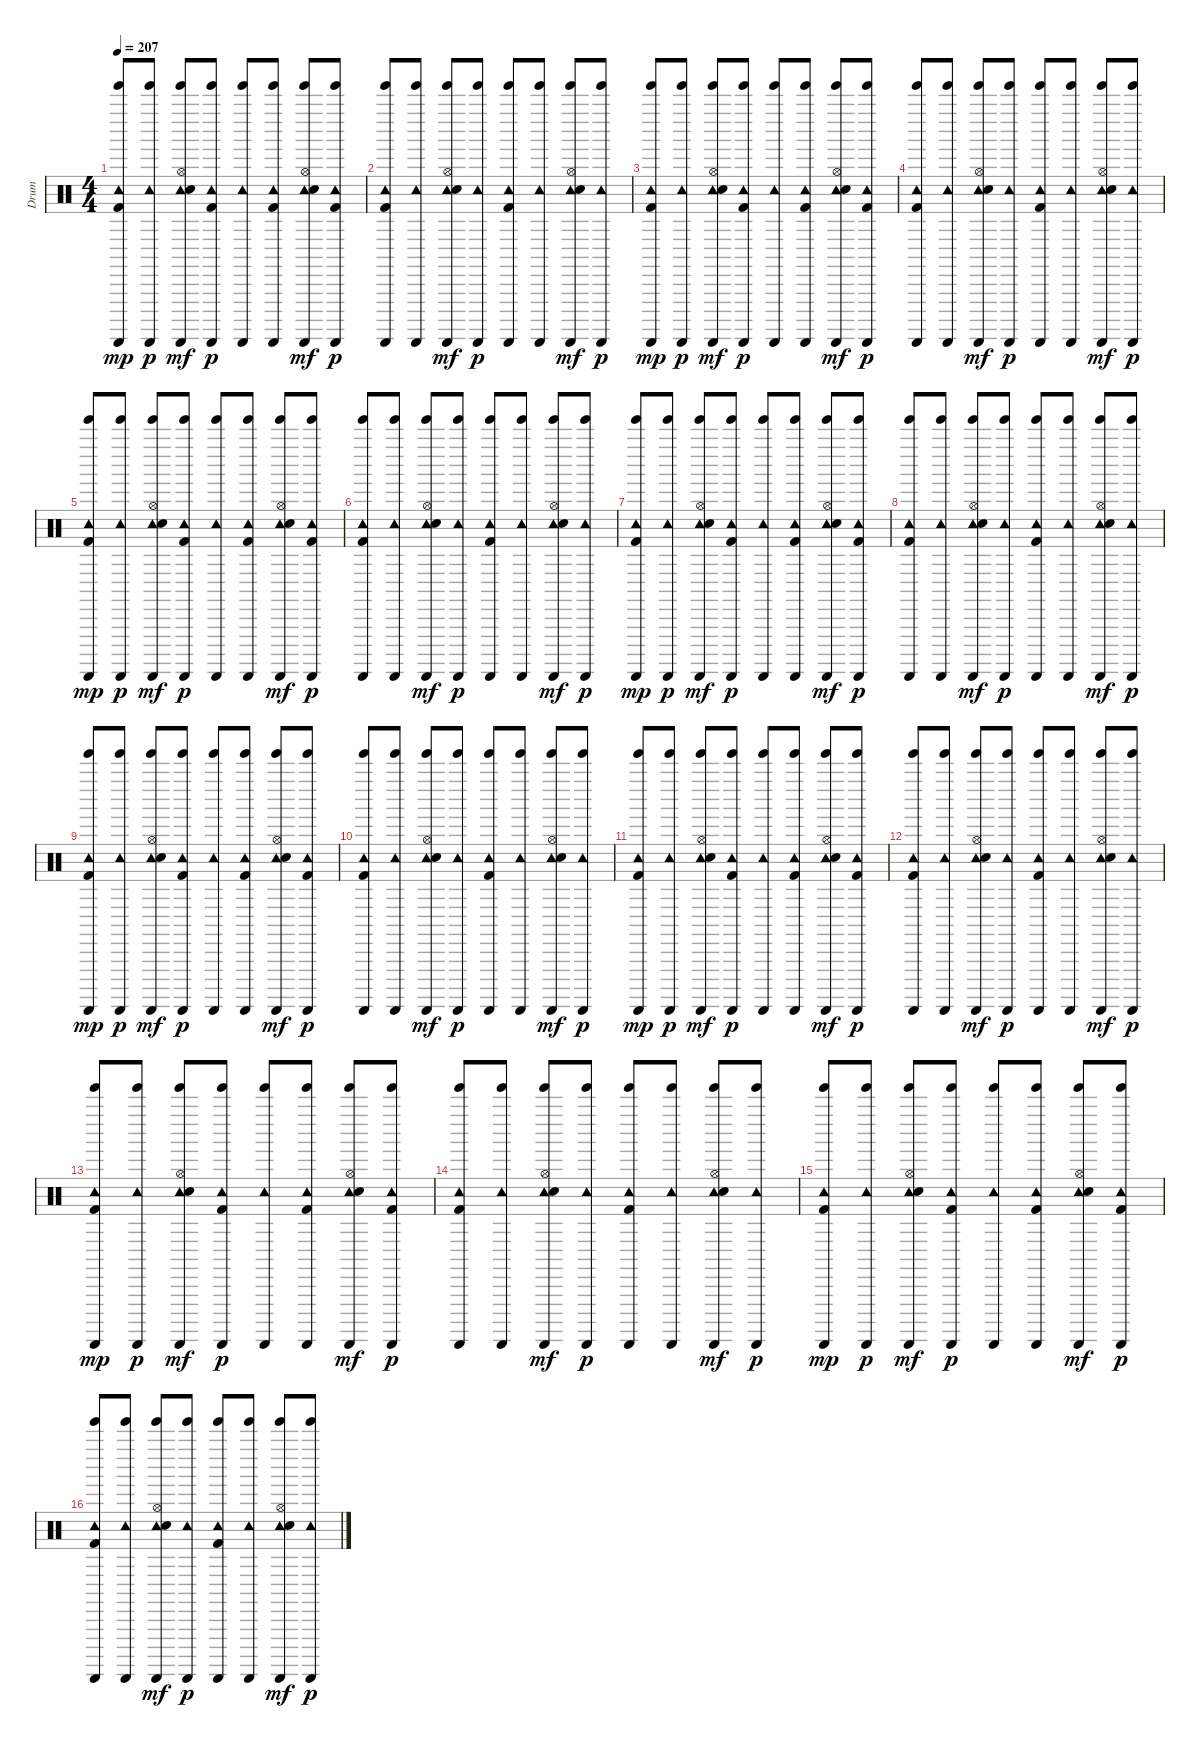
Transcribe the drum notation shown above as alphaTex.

\track ("Drum" "Drum") {instrument percussion}
\staff {score}
\articulation defaults
\ts (4 4)
\tempo 207
\clef neutral
\ks c
("Tambourine (hit)" "Kick (hit) 2" "Tinkle Bell (hit)" "Guiro (scrap-return)").8{dy mp} ("Tambourine (hit)" "Tinkle Bell (hit)" "Guiro (scrap-return)").8{dy p} ("Tambourine (hit)" "Hi-Hat (open)" "Snare (hit) 2" "Tinkle Bell (hit)" "Guiro (scrap-return)").8{dy mf} ("Tambourine (hit)" "Kick (hit) 2" "Tinkle Bell (hit)" "Guiro (scrap-return)").8{dy p} ("Tambourine (hit)" "Tinkle Bell (hit)" "Guiro (scrap-return)").8 ("Tambourine (hit)" "Kick (hit) 2" "Tinkle Bell (hit)" "Guiro (scrap-return)").8 ("Tambourine (hit)" "Hi-Hat (open)" "Snare (hit) 2" "Tinkle Bell (hit)" "Guiro (scrap-return)").8{dy mf} ("Tambourine (hit)" "Kick (hit) 2" "Tinkle Bell (hit)" "Guiro (scrap-return)").8{dy p} |
("Tambourine (hit)" "Kick (hit) 2" "Tinkle Bell (hit)" "Guiro (scrap-return)").8 ("Tambourine (hit)" "Tinkle Bell (hit)" "Guiro (scrap-return)").8 ("Tambourine (hit)" "Hi-Hat (open)" "Snare (hit) 2" "Tinkle Bell (hit)" "Guiro (scrap-return)").8{dy mf} ("Tambourine (hit)" "Tinkle Bell (hit)" "Guiro (scrap-return)").8{dy p} ("Tambourine (hit)" "Kick (hit) 2" "Tinkle Bell (hit)" "Guiro (scrap-return)").8 ("Tambourine (hit)" "Tinkle Bell (hit)" "Guiro (scrap-return)").8 ("Tambourine (hit)" "Hi-Hat (open)" "Snare (hit) 2" "Tinkle Bell (hit)" "Guiro (scrap-return)").8{dy mf} ("Tambourine (hit)" "Tinkle Bell (hit)" "Guiro (scrap-return)").8{dy p} |
("Tambourine (hit)" "Kick (hit) 2" "Tinkle Bell (hit)" "Guiro (scrap-return)").8{dy mp} ("Tambourine (hit)" "Tinkle Bell (hit)" "Guiro (scrap-return)").8{dy p} ("Tambourine (hit)" "Hi-Hat (open)" "Snare (hit) 2" "Tinkle Bell (hit)" "Guiro (scrap-return)").8{dy mf} ("Tambourine (hit)" "Kick (hit) 2" "Tinkle Bell (hit)" "Guiro (scrap-return)").8{dy p} ("Tambourine (hit)" "Tinkle Bell (hit)" "Guiro (scrap-return)").8 ("Tambourine (hit)" "Kick (hit) 2" "Tinkle Bell (hit)" "Guiro (scrap-return)").8 ("Tambourine (hit)" "Hi-Hat (open)" "Snare (hit) 2" "Tinkle Bell (hit)" "Guiro (scrap-return)").8{dy mf} ("Tambourine (hit)" "Kick (hit) 2" "Tinkle Bell (hit)" "Guiro (scrap-return)").8{dy p} |
("Tambourine (hit)" "Kick (hit) 2" "Tinkle Bell (hit)" "Guiro (scrap-return)").8 ("Tambourine (hit)" "Tinkle Bell (hit)" "Guiro (scrap-return)").8 ("Tambourine (hit)" "Hi-Hat (open)" "Snare (hit) 2" "Tinkle Bell (hit)" "Guiro (scrap-return)").8{dy mf} ("Tambourine (hit)" "Tinkle Bell (hit)" "Guiro (scrap-return)").8{dy p} ("Tambourine (hit)" "Kick (hit) 2" "Tinkle Bell (hit)" "Guiro (scrap-return)").8 ("Tambourine (hit)" "Tinkle Bell (hit)" "Guiro (scrap-return)").8 ("Tambourine (hit)" "Hi-Hat (open)" "Snare (hit) 2" "Tinkle Bell (hit)" "Guiro (scrap-return)").8{dy mf} ("Tambourine (hit)" "Tinkle Bell (hit)" "Guiro (scrap-return)").8{dy p} |
("Tambourine (hit)" "Kick (hit) 2" "Tinkle Bell (hit)" "Guiro (scrap-return)").8{dy mp} ("Tambourine (hit)" "Tinkle Bell (hit)" "Guiro (scrap-return)").8{dy p} ("Tambourine (hit)" "Hi-Hat (open)" "Snare (hit) 2" "Tinkle Bell (hit)" "Guiro (scrap-return)").8{dy mf} ("Tambourine (hit)" "Kick (hit) 2" "Tinkle Bell (hit)" "Guiro (scrap-return)").8{dy p} ("Tambourine (hit)" "Tinkle Bell (hit)" "Guiro (scrap-return)").8 ("Tambourine (hit)" "Kick (hit) 2" "Tinkle Bell (hit)" "Guiro (scrap-return)").8 ("Tambourine (hit)" "Hi-Hat (open)" "Snare (hit) 2" "Tinkle Bell (hit)" "Guiro (scrap-return)").8{dy mf} ("Tambourine (hit)" "Kick (hit) 2" "Tinkle Bell (hit)" "Guiro (scrap-return)").8{dy p} |
("Tambourine (hit)" "Kick (hit) 2" "Tinkle Bell (hit)" "Guiro (scrap-return)").8 ("Tambourine (hit)" "Tinkle Bell (hit)" "Guiro (scrap-return)").8 ("Tambourine (hit)" "Hi-Hat (open)" "Snare (hit) 2" "Tinkle Bell (hit)" "Guiro (scrap-return)").8{dy mf} ("Tambourine (hit)" "Tinkle Bell (hit)" "Guiro (scrap-return)").8{dy p} ("Tambourine (hit)" "Kick (hit) 2" "Tinkle Bell (hit)" "Guiro (scrap-return)").8 ("Tambourine (hit)" "Tinkle Bell (hit)" "Guiro (scrap-return)").8 ("Tambourine (hit)" "Hi-Hat (open)" "Snare (hit) 2" "Tinkle Bell (hit)" "Guiro (scrap-return)").8{dy mf} ("Tambourine (hit)" "Tinkle Bell (hit)" "Guiro (scrap-return)").8{dy p} |
("Tambourine (hit)" "Kick (hit) 2" "Tinkle Bell (hit)" "Guiro (scrap-return)").8{dy mp} ("Tambourine (hit)" "Tinkle Bell (hit)" "Guiro (scrap-return)").8{dy p} ("Tambourine (hit)" "Hi-Hat (open)" "Snare (hit) 2" "Tinkle Bell (hit)" "Guiro (scrap-return)").8{dy mf} ("Tambourine (hit)" "Kick (hit) 2" "Tinkle Bell (hit)" "Guiro (scrap-return)").8{dy p} ("Tambourine (hit)" "Tinkle Bell (hit)" "Guiro (scrap-return)").8 ("Tambourine (hit)" "Kick (hit) 2" "Tinkle Bell (hit)" "Guiro (scrap-return)").8 ("Tambourine (hit)" "Hi-Hat (open)" "Snare (hit) 2" "Tinkle Bell (hit)" "Guiro (scrap-return)").8{dy mf} ("Tambourine (hit)" "Kick (hit) 2" "Tinkle Bell (hit)" "Guiro (scrap-return)").8{dy p} |
("Tambourine (hit)" "Kick (hit) 2" "Tinkle Bell (hit)" "Guiro (scrap-return)").8 ("Tambourine (hit)" "Tinkle Bell (hit)" "Guiro (scrap-return)").8 ("Tambourine (hit)" "Hi-Hat (open)" "Snare (hit) 2" "Tinkle Bell (hit)" "Guiro (scrap-return)").8{dy mf} ("Tambourine (hit)" "Tinkle Bell (hit)" "Guiro (scrap-return)").8{dy p} ("Tambourine (hit)" "Kick (hit) 2" "Tinkle Bell (hit)" "Guiro (scrap-return)").8 ("Tambourine (hit)" "Tinkle Bell (hit)" "Guiro (scrap-return)").8 ("Tambourine (hit)" "Hi-Hat (open)" "Snare (hit) 2" "Tinkle Bell (hit)" "Guiro (scrap-return)").8{dy mf} ("Tambourine (hit)" "Tinkle Bell (hit)" "Guiro (scrap-return)").8{dy p} |
("Tambourine (hit)" "Kick (hit) 2" "Tinkle Bell (hit)" "Guiro (scrap-return)").8{dy mp} ("Tambourine (hit)" "Tinkle Bell (hit)" "Guiro (scrap-return)").8{dy p} ("Tambourine (hit)" "Hi-Hat (open)" "Snare (hit) 2" "Tinkle Bell (hit)" "Guiro (scrap-return)").8{dy mf} ("Tambourine (hit)" "Kick (hit) 2" "Tinkle Bell (hit)" "Guiro (scrap-return)").8{dy p} ("Tambourine (hit)" "Tinkle Bell (hit)" "Guiro (scrap-return)").8 ("Tambourine (hit)" "Kick (hit) 2" "Tinkle Bell (hit)" "Guiro (scrap-return)").8 ("Tambourine (hit)" "Hi-Hat (open)" "Snare (hit) 2" "Tinkle Bell (hit)" "Guiro (scrap-return)").8{dy mf} ("Tambourine (hit)" "Kick (hit) 2" "Tinkle Bell (hit)" "Guiro (scrap-return)").8{dy p} |
("Tambourine (hit)" "Kick (hit) 2" "Tinkle Bell (hit)" "Guiro (scrap-return)").8 ("Tambourine (hit)" "Tinkle Bell (hit)" "Guiro (scrap-return)").8 ("Tambourine (hit)" "Hi-Hat (open)" "Snare (hit) 2" "Tinkle Bell (hit)" "Guiro (scrap-return)").8{dy mf} ("Tambourine (hit)" "Tinkle Bell (hit)" "Guiro (scrap-return)").8{dy p} ("Tambourine (hit)" "Kick (hit) 2" "Tinkle Bell (hit)" "Guiro (scrap-return)").8 ("Tambourine (hit)" "Tinkle Bell (hit)" "Guiro (scrap-return)").8 ("Tambourine (hit)" "Hi-Hat (open)" "Snare (hit) 2" "Tinkle Bell (hit)" "Guiro (scrap-return)").8{dy mf} ("Tambourine (hit)" "Tinkle Bell (hit)" "Guiro (scrap-return)").8{dy p} |
("Tambourine (hit)" "Kick (hit) 2" "Tinkle Bell (hit)" "Guiro (scrap-return)").8{dy mp} ("Tambourine (hit)" "Tinkle Bell (hit)" "Guiro (scrap-return)").8{dy p} ("Tambourine (hit)" "Hi-Hat (open)" "Snare (hit) 2" "Tinkle Bell (hit)" "Guiro (scrap-return)").8{dy mf} ("Tambourine (hit)" "Kick (hit) 2" "Tinkle Bell (hit)" "Guiro (scrap-return)").8{dy p} ("Tambourine (hit)" "Tinkle Bell (hit)" "Guiro (scrap-return)").8 ("Tambourine (hit)" "Kick (hit) 2" "Tinkle Bell (hit)" "Guiro (scrap-return)").8 ("Tambourine (hit)" "Hi-Hat (open)" "Snare (hit) 2" "Tinkle Bell (hit)" "Guiro (scrap-return)").8{dy mf} ("Tambourine (hit)" "Kick (hit) 2" "Tinkle Bell (hit)" "Guiro (scrap-return)").8{dy p} |
("Tambourine (hit)" "Kick (hit) 2" "Tinkle Bell (hit)" "Guiro (scrap-return)").8 ("Tambourine (hit)" "Tinkle Bell (hit)" "Guiro (scrap-return)").8 ("Tambourine (hit)" "Hi-Hat (open)" "Snare (hit) 2" "Tinkle Bell (hit)" "Guiro (scrap-return)").8{dy mf} ("Tambourine (hit)" "Tinkle Bell (hit)" "Guiro (scrap-return)").8{dy p} ("Tambourine (hit)" "Kick (hit) 2" "Tinkle Bell (hit)" "Guiro (scrap-return)").8 ("Tambourine (hit)" "Tinkle Bell (hit)" "Guiro (scrap-return)").8 ("Tambourine (hit)" "Hi-Hat (open)" "Snare (hit) 2" "Tinkle Bell (hit)" "Guiro (scrap-return)").8{dy mf} ("Tambourine (hit)" "Tinkle Bell (hit)" "Guiro (scrap-return)").8{dy p} |
("Tambourine (hit)" "Kick (hit) 2" "Tinkle Bell (hit)" "Guiro (scrap-return)").8{dy mp} ("Tambourine (hit)" "Tinkle Bell (hit)" "Guiro (scrap-return)").8{dy p} ("Tambourine (hit)" "Hi-Hat (open)" "Snare (hit) 2" "Tinkle Bell (hit)" "Guiro (scrap-return)").8{dy mf} ("Tambourine (hit)" "Kick (hit) 2" "Tinkle Bell (hit)" "Guiro (scrap-return)").8{dy p} ("Tambourine (hit)" "Tinkle Bell (hit)" "Guiro (scrap-return)").8 ("Tambourine (hit)" "Kick (hit) 2" "Tinkle Bell (hit)" "Guiro (scrap-return)").8 ("Tambourine (hit)" "Hi-Hat (open)" "Snare (hit) 2" "Tinkle Bell (hit)" "Guiro (scrap-return)").8{dy mf} ("Tambourine (hit)" "Kick (hit) 2" "Tinkle Bell (hit)" "Guiro (scrap-return)").8{dy p} |
("Tambourine (hit)" "Kick (hit) 2" "Tinkle Bell (hit)" "Guiro (scrap-return)").8 ("Tambourine (hit)" "Tinkle Bell (hit)" "Guiro (scrap-return)").8 ("Tambourine (hit)" "Hi-Hat (open)" "Snare (hit) 2" "Tinkle Bell (hit)" "Guiro (scrap-return)").8{dy mf} ("Tambourine (hit)" "Tinkle Bell (hit)" "Guiro (scrap-return)").8{dy p} ("Tambourine (hit)" "Kick (hit) 2" "Tinkle Bell (hit)" "Guiro (scrap-return)").8 ("Tambourine (hit)" "Tinkle Bell (hit)" "Guiro (scrap-return)").8 ("Tambourine (hit)" "Hi-Hat (open)" "Snare (hit) 2" "Tinkle Bell (hit)" "Guiro (scrap-return)").8{dy mf} ("Tambourine (hit)" "Tinkle Bell (hit)" "Guiro (scrap-return)").8{dy p} |
("Tambourine (hit)" "Kick (hit) 2" "Tinkle Bell (hit)" "Guiro (scrap-return)").8{dy mp} ("Tambourine (hit)" "Tinkle Bell (hit)" "Guiro (scrap-return)").8{dy p} ("Tambourine (hit)" "Hi-Hat (open)" "Snare (hit) 2" "Tinkle Bell (hit)" "Guiro (scrap-return)").8{dy mf} ("Tambourine (hit)" "Kick (hit) 2" "Tinkle Bell (hit)" "Guiro (scrap-return)").8{dy p} ("Tambourine (hit)" "Tinkle Bell (hit)" "Guiro (scrap-return)").8 ("Tambourine (hit)" "Kick (hit) 2" "Tinkle Bell (hit)" "Guiro (scrap-return)").8 ("Tambourine (hit)" "Hi-Hat (open)" "Snare (hit) 2" "Tinkle Bell (hit)" "Guiro (scrap-return)").8{dy mf} ("Tambourine (hit)" "Kick (hit) 2" "Tinkle Bell (hit)" "Guiro (scrap-return)").8{dy p} |
("Tambourine (hit)" "Kick (hit) 2" "Tinkle Bell (hit)" "Guiro (scrap-return)").8 ("Tambourine (hit)" "Tinkle Bell (hit)" "Guiro (scrap-return)").8 ("Tambourine (hit)" "Hi-Hat (open)" "Snare (hit) 2" "Tinkle Bell (hit)" "Guiro (scrap-return)").8{dy mf} ("Tambourine (hit)" "Tinkle Bell (hit)" "Guiro (scrap-return)").8{dy p} ("Tambourine (hit)" "Kick (hit) 2" "Tinkle Bell (hit)" "Guiro (scrap-return)").8 ("Tambourine (hit)" "Tinkle Bell (hit)" "Guiro (scrap-return)").8 ("Tambourine (hit)" "Hi-Hat (open)" "Snare (hit) 2" "Tinkle Bell (hit)" "Guiro (scrap-return)").8{dy mf} ("Tambourine (hit)" "Tinkle Bell (hit)" "Guiro (scrap-return)").8{dy p}
